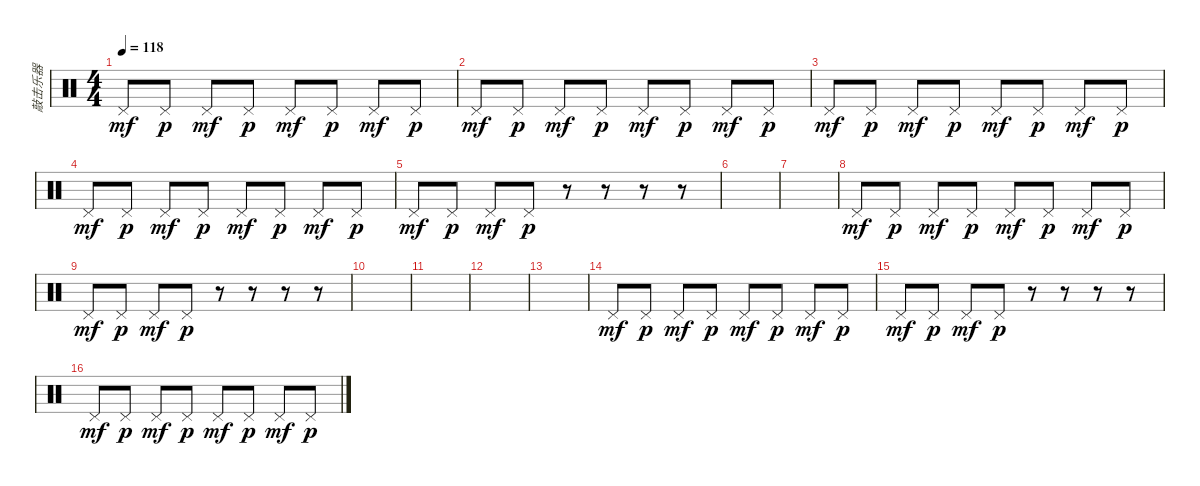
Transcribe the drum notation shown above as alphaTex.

\track ("敲击乐器" "敲击乐器") {instrument percussion}
\staff {score}
\articulation defaults
\ts (4 4)
\tempo 118
\clef neutral
\ks c "Pedal Hi-Hat (hit)".8{dy mf} "Pedal Hi-Hat (hit)".8{dy p} "Pedal Hi-Hat (hit)".8{dy mf} "Pedal Hi-Hat (hit)".8{dy p} "Pedal Hi-Hat (hit)".8{dy mf} "Pedal Hi-Hat (hit)".8{dy p} "Pedal Hi-Hat (hit)".8{dy mf} "Pedal Hi-Hat (hit)".8{dy p}
|
"Pedal Hi-Hat (hit)".8{dy mf} "Pedal Hi-Hat (hit)".8{dy p} "Pedal Hi-Hat (hit)".8{dy mf} "Pedal Hi-Hat (hit)".8{dy p} "Pedal Hi-Hat (hit)".8{dy mf} "Pedal Hi-Hat (hit)".8{dy p} "Pedal Hi-Hat (hit)".8{dy mf} "Pedal Hi-Hat (hit)".8{dy p} |
"Pedal Hi-Hat (hit)".8{dy mf} "Pedal Hi-Hat (hit)".8{dy p} "Pedal Hi-Hat (hit)".8{dy mf} "Pedal Hi-Hat (hit)".8{dy p} "Pedal Hi-Hat (hit)".8{dy mf} "Pedal Hi-Hat (hit)".8{dy p} "Pedal Hi-Hat (hit)".8{dy mf} "Pedal Hi-Hat (hit)".8{dy p} |
"Pedal Hi-Hat (hit)".8{dy mf} "Pedal Hi-Hat (hit)".8{dy p} "Pedal Hi-Hat (hit)".8{dy mf} "Pedal Hi-Hat (hit)".8{dy p} "Pedal Hi-Hat (hit)".8{dy mf} "Pedal Hi-Hat (hit)".8{dy p} "Pedal Hi-Hat (hit)".8{dy mf} "Pedal Hi-Hat (hit)".8{dy p} |
"Pedal Hi-Hat (hit)".8{dy mf} "Pedal Hi-Hat (hit)".8{dy p} "Pedal Hi-Hat (hit)".8{dy mf} "Pedal Hi-Hat (hit)".8{dy p} r.8 r.8 r.8 r.8 |
|
|
"Pedal Hi-Hat (hit)".8{dy mf} "Pedal Hi-Hat (hit)".8{dy p} "Pedal Hi-Hat (hit)".8{dy mf} "Pedal Hi-Hat (hit)".8{dy p} "Pedal Hi-Hat (hit)".8{dy mf} "Pedal Hi-Hat (hit)".8{dy p} "Pedal Hi-Hat (hit)".8{dy mf} "Pedal Hi-Hat (hit)".8{dy p} |
"Pedal Hi-Hat (hit)".8{dy mf} "Pedal Hi-Hat (hit)".8{dy p} "Pedal Hi-Hat (hit)".8{dy mf} "Pedal Hi-Hat (hit)".8{dy p} r.8 r.8 r.8 r.8 |
|
|
|
|
"Pedal Hi-Hat (hit)".8{dy mf} "Pedal Hi-Hat (hit)".8{dy p} "Pedal Hi-Hat (hit)".8{dy mf} "Pedal Hi-Hat (hit)".8{dy p} "Pedal Hi-Hat (hit)".8{dy mf} "Pedal Hi-Hat (hit)".8{dy p} "Pedal Hi-Hat (hit)".8{dy mf} "Pedal Hi-Hat (hit)".8{dy p} |
"Pedal Hi-Hat (hit)".8{dy mf} "Pedal Hi-Hat (hit)".8{dy p} "Pedal Hi-Hat (hit)".8{dy mf} "Pedal Hi-Hat (hit)".8{dy p} r.8 r.8 r.8 r.8 |
"Pedal Hi-Hat (hit)".8{dy mf} "Pedal Hi-Hat (hit)".8{dy p} "Pedal Hi-Hat (hit)".8{dy mf} "Pedal Hi-Hat (hit)".8{dy p} "Pedal Hi-Hat (hit)".8{dy mf} "Pedal Hi-Hat (hit)".8{dy p} "Pedal Hi-Hat (hit)".8{dy mf} "Pedal Hi-Hat (hit)".8{dy p}
